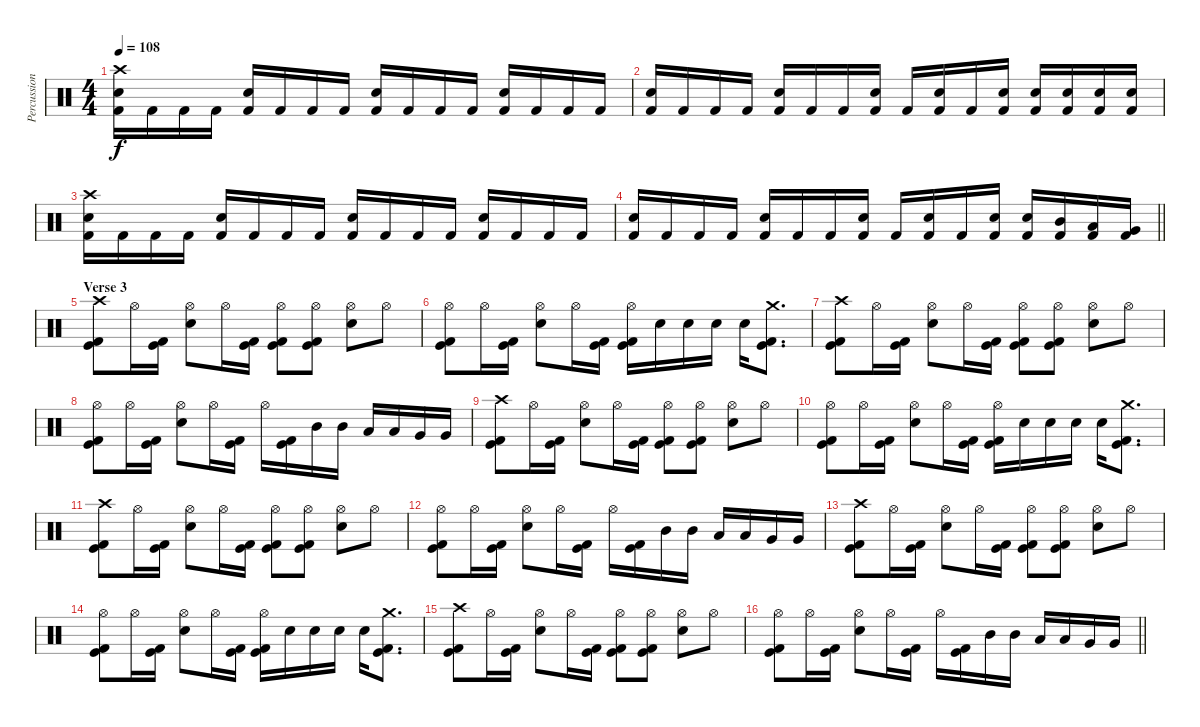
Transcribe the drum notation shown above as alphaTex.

\track ("Percussion" "Percussion") {instrument percussion}
\staff {score}
\articulation defaults
\ts (4 4)
\tempo 108
\clef neutral
\ks c
("Crash high (hit)" "Electric Snare (hit)" "Kick (hit) 2").16{dy f} "Kick (hit) 2".16 "Kick (hit) 2".16 "Kick (hit) 2".16 ("Electric Snare (hit)" "Kick (hit) 2").16 "Kick (hit) 2".16 "Kick (hit) 2".16 "Kick (hit) 2".16 ("Electric Snare (hit)" "Kick (hit) 2").16 "Kick (hit) 2".16 "Kick (hit) 2".16 "Kick (hit) 2".16 ("Electric Snare (hit)" "Kick (hit) 2").16 "Kick (hit) 2".16 "Kick (hit) 2".16 "Kick (hit) 2".16 |
("Electric Snare (hit)" "Kick (hit) 2").16 "Kick (hit) 2".16 "Kick (hit) 2".16 "Kick (hit) 2".16 ("Electric Snare (hit)" "Kick (hit) 2").16 "Kick (hit) 2".16 "Kick (hit) 2".16 ("Electric Snare (hit)" "Kick (hit) 2").16 "Kick (hit) 2".16 ("Electric Snare (hit)" "Kick (hit) 2").16 "Kick (hit) 2".16 ("Electric Snare (hit)" "Kick (hit) 2").16 ("Electric Snare (hit)" "Kick (hit) 2").16 ("Electric Snare (hit)" "Kick (hit) 2").16 ("Electric Snare (hit)" "Kick (hit) 2").16 ("Electric Snare (hit)" "Kick (hit) 2").16 |
("Crash high (hit)" "Electric Snare (hit)" "Kick (hit) 2").16 "Kick (hit) 2".16 "Kick (hit) 2".16 "Kick (hit) 2".16 ("Electric Snare (hit)" "Kick (hit) 2").16 "Kick (hit) 2".16 "Kick (hit) 2".16 "Kick (hit) 2".16 ("Electric Snare (hit)" "Kick (hit) 2").16 "Kick (hit) 2".16 "Kick (hit) 2".16 "Kick (hit) 2".16 ("Electric Snare (hit)" "Kick (hit) 2").16 "Kick (hit) 2".16 "Kick (hit) 2".16 "Kick (hit) 2".16 |
\barLineRight lightlight
("Electric Snare (hit)" "Kick (hit) 2").16 "Kick (hit) 2".16 "Kick (hit) 2".16 "Kick (hit) 2".16 ("Electric Snare (hit)" "Kick (hit) 2").16 "Kick (hit) 2".16 "Kick (hit) 2".16 ("Electric Snare (hit)" "Kick (hit) 2").16 "Kick (hit) 2".16 ("Electric Snare (hit)" "Kick (hit) 2").16 "Kick (hit) 2".16 ("Electric Snare (hit)" "Kick (hit) 2").16 ("Electric Snare (hit)" "Kick (hit) 2").16 ("Kick (hit) 2" "Mid Tom (hit)").16 ("Kick (hit) 2" "Low Tom (hit)").16 ("Kick (hit) 2" "Very Low Tom (hit)").16 |
\section ("" "Verse 3")
("Crash high (hit)" "Kick (hit)" "Kick (hit) 2").8 "Hi-Hat (open)".16 ("Kick (hit)" "Kick (hit) 2").16 ("Hi-Hat (open)" "Electric Snare (hit)").8 "Hi-Hat (open)".16 ("Kick (hit)" "Kick (hit) 2").16 ("Hi-Hat (open)" "Kick (hit)" "Kick (hit) 2").8 ("Hi-Hat (open)" "Kick (hit)" "Kick (hit) 2").8 ("Hi-Hat (open)" "Electric Snare (hit)").8 "Hi-Hat (open)".8 |
("Hi-Hat (open)" "Kick (hit)" "Kick (hit) 2").8 "Hi-Hat (open)".16 ("Kick (hit)" "Kick (hit) 2").16 ("Hi-Hat (open)" "Electric Snare (hit)").8 "Hi-Hat (open)".16 ("Kick (hit)" "Kick (hit) 2").16 ("Hi-Hat (open)" "Kick (hit)" "Kick (hit) 2").16 "Electric Snare (hit)".16 "Electric Snare (hit)".16 "Electric Snare (hit)".16 "Electric Snare (hit)".16 ("Crash medium (hit)" "Kick (hit)" "Kick (hit) 2").8{d} |
("Crash high (hit)" "Kick (hit)" "Kick (hit) 2").8 "Hi-Hat (open)".16 ("Kick (hit)" "Kick (hit) 2").16 ("Hi-Hat (open)" "Electric Snare (hit)").8 "Hi-Hat (open)".16 ("Kick (hit)" "Kick (hit) 2").16 ("Hi-Hat (open)" "Kick (hit)" "Kick (hit) 2").8 ("Hi-Hat (open)" "Kick (hit)" "Kick (hit) 2").8 ("Hi-Hat (open)" "Electric Snare (hit)").8 "Hi-Hat (open)".8 |
("Hi-Hat (open)" "Kick (hit)" "Kick (hit) 2").8 "Hi-Hat (open)".16 ("Kick (hit)" "Kick (hit) 2").16 ("Hi-Hat (open)" "Electric Snare (hit)").8 "Hi-Hat (open)".16 ("Kick (hit)" "Kick (hit) 2").16 "Hi-Hat (open)".16 ("Kick (hit)" "Kick (hit) 2").16 "Mid Tom (hit)".16 "Mid Tom (hit)".16 "Low Tom (hit)".16 "Low Tom (hit)".16 "Very Low Tom (hit)".16 "Very Low Tom (hit)".16 |
("Crash high (hit)" "Kick (hit)" "Kick (hit) 2").8 "Hi-Hat (open)".16 ("Kick (hit)" "Kick (hit) 2").16 ("Hi-Hat (open)" "Electric Snare (hit)").8 "Hi-Hat (open)".16 ("Kick (hit)" "Kick (hit) 2").16 ("Hi-Hat (open)" "Kick (hit)" "Kick (hit) 2").8 ("Hi-Hat (open)" "Kick (hit)" "Kick (hit) 2").8 ("Hi-Hat (open)" "Electric Snare (hit)").8 "Hi-Hat (open)".8 |
("Hi-Hat (open)" "Kick (hit)" "Kick (hit) 2").8 "Hi-Hat (open)".16 ("Kick (hit)" "Kick (hit) 2").16 ("Hi-Hat (open)" "Electric Snare (hit)").8 "Hi-Hat (open)".16 ("Kick (hit)" "Kick (hit) 2").16 ("Hi-Hat (open)" "Kick (hit)" "Kick (hit) 2").16 "Electric Snare (hit)".16 "Electric Snare (hit)".16 "Electric Snare (hit)".16 "Electric Snare (hit)".16 ("Crash medium (hit)" "Kick (hit)" "Kick (hit) 2").8{d} |
("Crash high (hit)" "Kick (hit)" "Kick (hit) 2").8 "Hi-Hat (open)".16 ("Kick (hit)" "Kick (hit) 2").16 ("Hi-Hat (open)" "Electric Snare (hit)").8 "Hi-Hat (open)".16 ("Kick (hit)" "Kick (hit) 2").16 ("Hi-Hat (open)" "Kick (hit)" "Kick (hit) 2").8 ("Hi-Hat (open)" "Kick (hit)" "Kick (hit) 2").8 ("Hi-Hat (open)" "Electric Snare (hit)").8 "Hi-Hat (open)".8 |
("Hi-Hat (open)" "Kick (hit)" "Kick (hit) 2").8 "Hi-Hat (open)".16 ("Kick (hit)" "Kick (hit) 2").16 ("Hi-Hat (open)" "Electric Snare (hit)").8 "Hi-Hat (open)".16 ("Kick (hit)" "Kick (hit) 2").16 "Hi-Hat (open)".16 ("Kick (hit)" "Kick (hit) 2").16 "Mid Tom (hit)".16 "Mid Tom (hit)".16 "Low Tom (hit)".16 "Low Tom (hit)".16 "Very Low Tom (hit)".16 "Very Low Tom (hit)".16 |
("Crash high (hit)" "Kick (hit)" "Kick (hit) 2").8 "Hi-Hat (open)".16 ("Kick (hit)" "Kick (hit) 2").16 ("Hi-Hat (open)" "Electric Snare (hit)").8 "Hi-Hat (open)".16 ("Kick (hit)" "Kick (hit) 2").16 ("Hi-Hat (open)" "Kick (hit)" "Kick (hit) 2").8 ("Hi-Hat (open)" "Kick (hit)" "Kick (hit) 2").8 ("Hi-Hat (open)" "Electric Snare (hit)").8 "Hi-Hat (open)".8 |
("Hi-Hat (open)" "Kick (hit)" "Kick (hit) 2").8 "Hi-Hat (open)".16 ("Kick (hit)" "Kick (hit) 2").16 ("Hi-Hat (open)" "Electric Snare (hit)").8 "Hi-Hat (open)".16 ("Kick (hit)" "Kick (hit) 2").16 ("Hi-Hat (open)" "Kick (hit)" "Kick (hit) 2").16 "Electric Snare (hit)".16 "Electric Snare (hit)".16 "Electric Snare (hit)".16 "Electric Snare (hit)".16 ("Crash medium (hit)" "Kick (hit)" "Kick (hit) 2").8{d} |
("Crash high (hit)" "Kick (hit)" "Kick (hit) 2").8 "Hi-Hat (open)".16 ("Kick (hit)" "Kick (hit) 2").16 ("Hi-Hat (open)" "Electric Snare (hit)").8 "Hi-Hat (open)".16 ("Kick (hit)" "Kick (hit) 2").16 ("Hi-Hat (open)" "Kick (hit)" "Kick (hit) 2").8 ("Hi-Hat (open)" "Kick (hit)" "Kick (hit) 2").8 ("Hi-Hat (open)" "Electric Snare (hit)").8 "Hi-Hat (open)".8 |
\barLineRight lightlight
("Hi-Hat (open)" "Kick (hit)" "Kick (hit) 2").8 "Hi-Hat (open)".16 ("Kick (hit)" "Kick (hit) 2").16 ("Hi-Hat (open)" "Electric Snare (hit)").8 "Hi-Hat (open)".16 ("Kick (hit)" "Kick (hit) 2").16 "Hi-Hat (open)".16 ("Kick (hit)" "Kick (hit) 2").16 "Mid Tom (hit)".16 "Mid Tom (hit)".16 "Low Tom (hit)".16 "Low Tom (hit)".16 "Very Low Tom (hit)".16 "Very Low Tom (hit)".16
